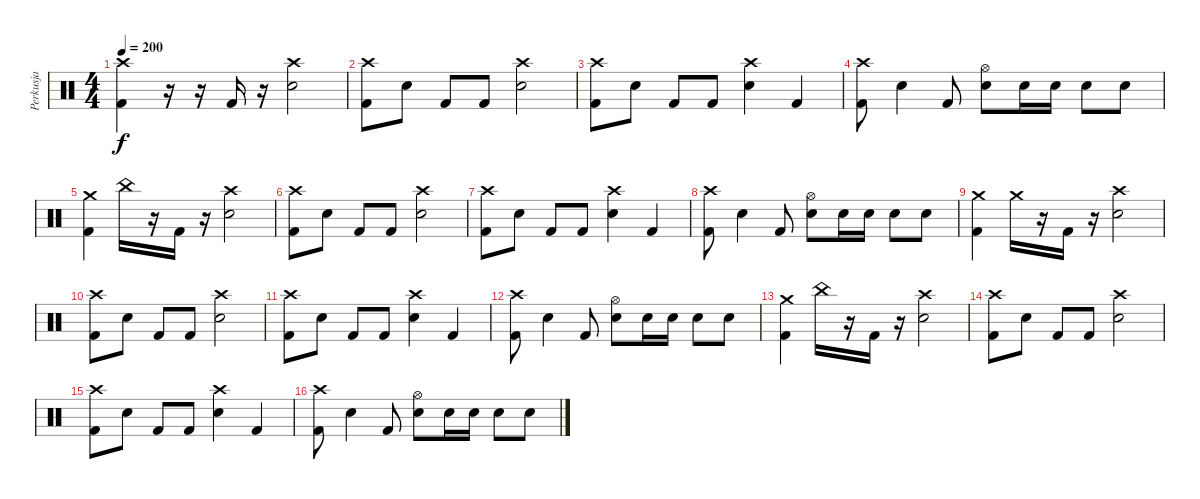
\track ("Perkusja" "Perkusja") {instrument percussion}
\staff {score}
\articulation defaults
\ts (4 4)
\tempo 200
\clef neutral
\ks c
("Crash high (hit)" "Kick (hit) 2").4{dy f} r.16 r.16 "Kick (hit) 2".16 r.16 ("Crash high (hit)" "Snare (hit) 2").2 |
("Crash high (hit)" "Kick (hit) 2").8 "Snare (hit) 2".8 "Kick (hit) 2".8 "Kick (hit) 2".8 ("Crash high (hit)" "Snare (hit) 2").2 |
("Crash high (hit)" "Kick (hit) 2").8 "Snare (hit) 2".8 "Kick (hit) 2".8 "Kick (hit) 2".8 ("Crash high (hit)" "Snare (hit) 2").4 "Kick (hit) 2".4 |
("Crash high (hit)" "Kick (hit) 2").8 "Snare (hit) 2".4 "Kick (hit) 2".8 ("Hi-Hat (open)" "Snare (hit) 2").8 "Electric Snare (hit)".16 "Electric Snare (hit)".16 "Electric Snare (hit)".8 "Electric Snare (hit)".8 |
("Crash medium (hit)" "Kick (hit) 2").4 "China (hit)".16 r.16 "Kick (hit) 2".16 r.16 ("Crash high (hit)" "Snare (hit) 2").2 |
("Crash high (hit)" "Kick (hit) 2").8 "Snare (hit) 2".8 "Kick (hit) 2".8 "Kick (hit) 2".8 ("Crash high (hit)" "Snare (hit) 2").2 |
("Crash high (hit)" "Kick (hit) 2").8 "Snare (hit) 2".8 "Kick (hit) 2".8 "Kick (hit) 2".8 ("Crash high (hit)" "Snare (hit) 2").4 "Kick (hit) 2".4 |
("Crash high (hit)" "Kick (hit) 2").8 "Snare (hit) 2".4 "Kick (hit) 2".8 ("Hi-Hat (open)" "Snare (hit) 2").8 "Electric Snare (hit)".16 "Electric Snare (hit)".16 "Electric Snare (hit)".8 "Electric Snare (hit)".8 |
("Crash medium (hit)" "Kick (hit) 2").4 "Crash medium (hit)".16 r.16 "Kick (hit) 2".16 r.16 ("Crash high (hit)" "Snare (hit) 2").2 |
("Crash high (hit)" "Kick (hit) 2").8 "Snare (hit) 2".8 "Kick (hit) 2".8 "Kick (hit) 2".8 ("Crash high (hit)" "Snare (hit) 2").2 |
("Crash high (hit)" "Kick (hit) 2").8 "Snare (hit) 2".8 "Kick (hit) 2".8 "Kick (hit) 2".8 ("Crash high (hit)" "Snare (hit) 2").4 "Kick (hit) 2".4 |
("Crash high (hit)" "Kick (hit) 2").8 "Snare (hit) 2".4 "Kick (hit) 2".8 ("Hi-Hat (open)" "Snare (hit) 2").8 "Electric Snare (hit)".16 "Electric Snare (hit)".16 "Electric Snare (hit)".8 "Electric Snare (hit)".8 |
("Crash medium (hit)" "Kick (hit) 2").4 "China (hit)".16 r.16 "Kick (hit) 2".16 r.16 ("Crash high (hit)" "Snare (hit) 2").2 |
("Crash high (hit)" "Kick (hit) 2").8 "Snare (hit) 2".8 "Kick (hit) 2".8 "Kick (hit) 2".8 ("Crash high (hit)" "Snare (hit) 2").2 |
("Crash high (hit)" "Kick (hit) 2").8 "Snare (hit) 2".8 "Kick (hit) 2".8 "Kick (hit) 2".8 ("Crash high (hit)" "Snare (hit) 2").4 "Kick (hit) 2".4 |
("Crash high (hit)" "Kick (hit) 2").8 "Snare (hit) 2".4 "Kick (hit) 2".8 ("Hi-Hat (open)" "Snare (hit) 2").8 "Electric Snare (hit)".16 "Electric Snare (hit)".16 "Electric Snare (hit)".8 "Electric Snare (hit)".8
